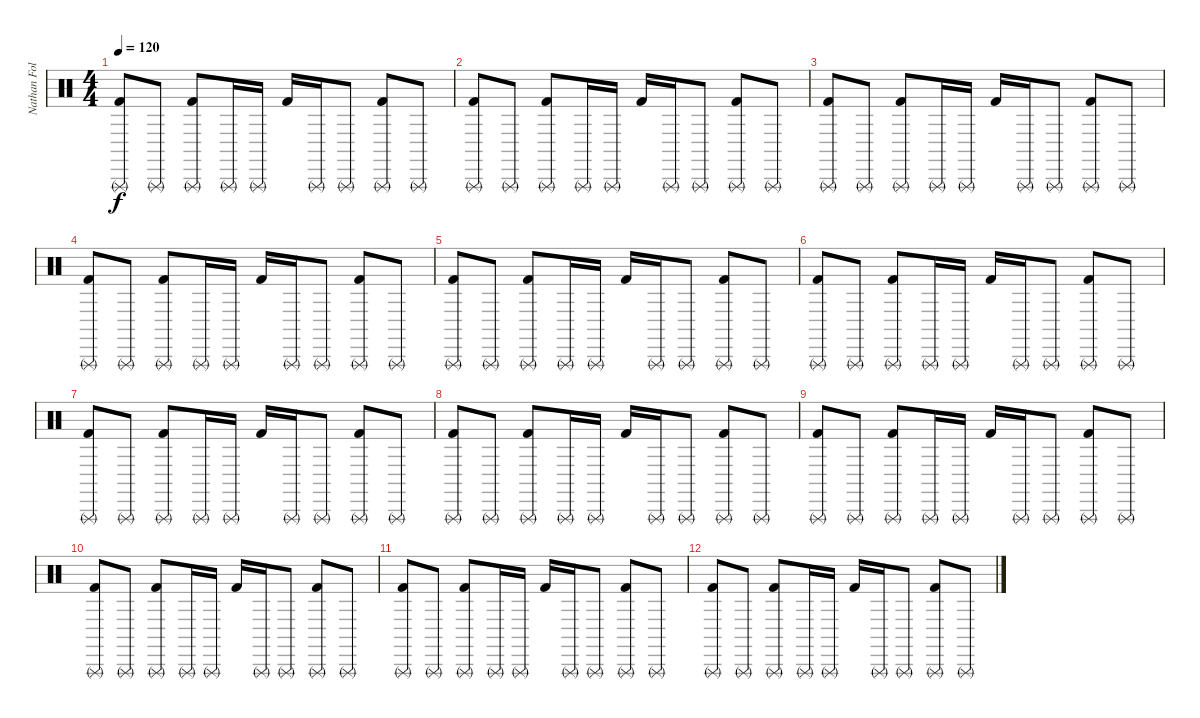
\track ("Nathan Followill - Drums" "Nathan Fol") {instrument percussion}
\staff {score}
\articulation defaults
\ts (4 4)
\tempo 120
\clef neutral
\ks c
("Triangle (rnute)" "Kick (hit) 2").8{dy f} "Triangle (rnute)".8 ("Triangle (rnute)" "Kick (hit) 2").8 "Triangle (rnute)".16 "Triangle (rnute)".16 "Kick (hit) 2".16 "Triangle (rnute)".16 "Triangle (rnute)".8 ("Triangle (rnute)" "Kick (hit) 2").8 "Triangle (rnute)".8 |
("Triangle (rnute)" "Kick (hit) 2").8 "Triangle (rnute)".8 ("Triangle (rnute)" "Kick (hit) 2").8 "Triangle (rnute)".16 "Triangle (rnute)".16 "Kick (hit) 2".16 "Triangle (rnute)".16 "Triangle (rnute)".8 ("Triangle (rnute)" "Kick (hit) 2").8 "Triangle (rnute)".8 |
("Triangle (rnute)" "Kick (hit) 2").8 "Triangle (rnute)".8 ("Triangle (rnute)" "Kick (hit) 2").8 "Triangle (rnute)".16 "Triangle (rnute)".16 "Kick (hit) 2".16 "Triangle (rnute)".16 "Triangle (rnute)".8 ("Triangle (rnute)" "Kick (hit) 2").8 "Triangle (rnute)".8 |
("Triangle (rnute)" "Kick (hit) 2").8 "Triangle (rnute)".8 ("Triangle (rnute)" "Kick (hit) 2").8 "Triangle (rnute)".16 "Triangle (rnute)".16 "Kick (hit) 2".16 "Triangle (rnute)".16 "Triangle (rnute)".8 ("Triangle (rnute)" "Kick (hit) 2").8 "Triangle (rnute)".8 |
("Triangle (rnute)" "Kick (hit) 2").8 "Triangle (rnute)".8 ("Triangle (rnute)" "Kick (hit) 2").8 "Triangle (rnute)".16 "Triangle (rnute)".16 "Kick (hit) 2".16 "Triangle (rnute)".16 "Triangle (rnute)".8 ("Triangle (rnute)" "Kick (hit) 2").8 "Triangle (rnute)".8 |
("Triangle (rnute)" "Kick (hit) 2").8 "Triangle (rnute)".8 ("Triangle (rnute)" "Kick (hit) 2").8 "Triangle (rnute)".16 "Triangle (rnute)".16 "Kick (hit) 2".16 "Triangle (rnute)".16 "Triangle (rnute)".8 ("Triangle (rnute)" "Kick (hit) 2").8 "Triangle (rnute)".8 |
("Triangle (rnute)" "Kick (hit) 2").8 "Triangle (rnute)".8 ("Triangle (rnute)" "Kick (hit) 2").8 "Triangle (rnute)".16 "Triangle (rnute)".16 "Kick (hit) 2".16 "Triangle (rnute)".16 "Triangle (rnute)".8 ("Triangle (rnute)" "Kick (hit) 2").8 "Triangle (rnute)".8 |
("Triangle (rnute)" "Kick (hit) 2").8 "Triangle (rnute)".8 ("Triangle (rnute)" "Kick (hit) 2").8 "Triangle (rnute)".16 "Triangle (rnute)".16 "Kick (hit) 2".16 "Triangle (rnute)".16 "Triangle (rnute)".8 ("Triangle (rnute)" "Kick (hit) 2").8 "Triangle (rnute)".8 |
("Triangle (rnute)" "Kick (hit) 2").8{volume 0} "Triangle (rnute)".8 ("Triangle (rnute)" "Kick (hit) 2").8 "Triangle (rnute)".16 "Triangle (rnute)".16 "Kick (hit) 2".16 "Triangle (rnute)".16 "Triangle (rnute)".8 ("Triangle (rnute)" "Kick (hit) 2").8 "Triangle (rnute)".8 |
("Triangle (rnute)" "Kick (hit) 2").8 "Triangle (rnute)".8 ("Triangle (rnute)" "Kick (hit) 2").8 "Triangle (rnute)".16 "Triangle (rnute)".16 "Kick (hit) 2".16 "Triangle (rnute)".16 "Triangle (rnute)".8 ("Triangle (rnute)" "Kick (hit) 2").8 "Triangle (rnute)".8 |
("Triangle (rnute)" "Kick (hit) 2").8 "Triangle (rnute)".8 ("Triangle (rnute)" "Kick (hit) 2").8 "Triangle (rnute)".16 "Triangle (rnute)".16 "Kick (hit) 2".16 "Triangle (rnute)".16 "Triangle (rnute)".8 ("Triangle (rnute)" "Kick (hit) 2").8 "Triangle (rnute)".8 |
("Triangle (rnute)" "Kick (hit) 2").8 "Triangle (rnute)".8 ("Triangle (rnute)" "Kick (hit) 2").8 "Triangle (rnute)".16 "Triangle (rnute)".16 "Kick (hit) 2".16 "Triangle (rnute)".16 "Triangle (rnute)".8 ("Triangle (rnute)" "Kick (hit) 2").8 "Triangle (rnute)".8
